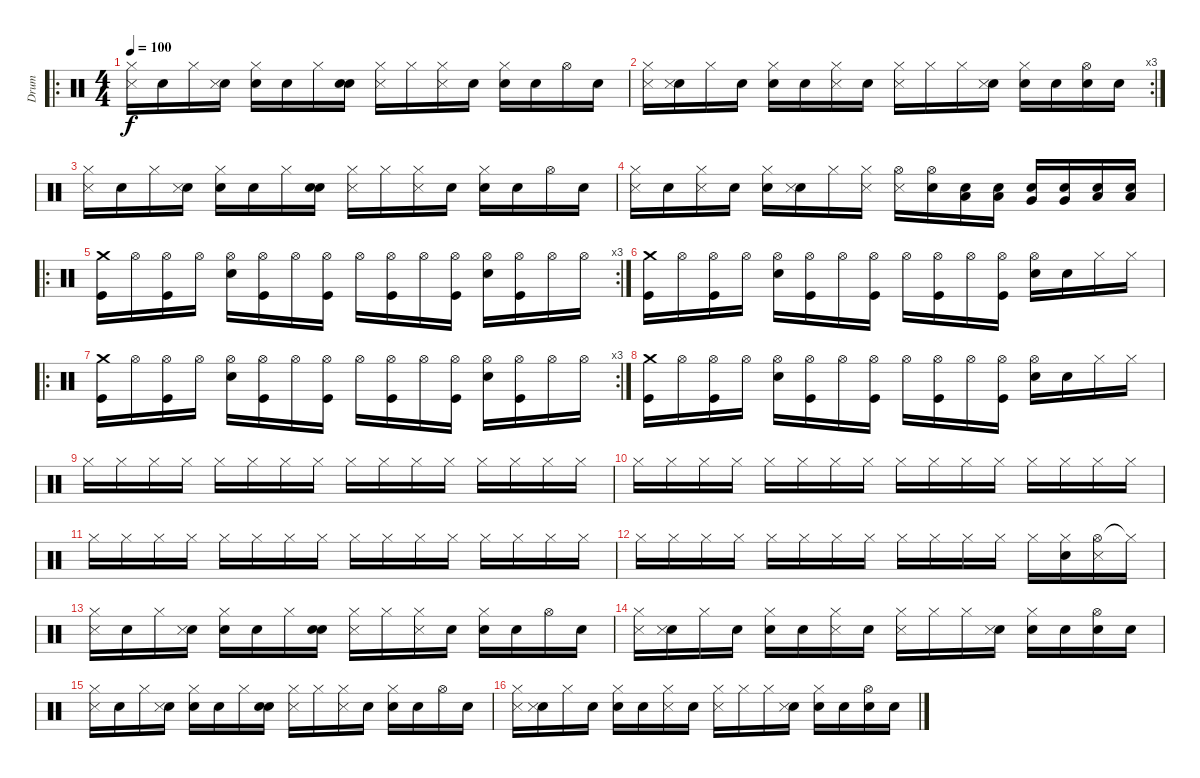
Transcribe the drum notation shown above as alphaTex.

\track ("Drum" "Drum") {instrument percussion}
\staff {score}
\articulation defaults
\ro
\ts (4 4)
\tempo 100
\clef neutral
\ks c
("Hi-Hat (closed)" "Metronome (hit)").16{dy f} "Snare (hit)".16 "Hi-Hat (closed)".16 ("Snare (hit)" "Metronome (hit)").16 ("Hi-Hat (closed)" "Metronome (bell)").16 "Snare (hit)".16 "Hi-Hat (closed)".16 ("Snare (hit)" "Metronome (bell)").16 ("Hi-Hat (closed)" "Metronome (hit)").16 "Hi-Hat (closed)".16 ("Hi-Hat (closed)" "Metronome (hit)").16 "Snare (hit)".16 ("Hi-Hat (closed)" "Metronome (bell)").16 "Snare (hit)".16 "Hi-Hat (open)".16 "Snare (hit)".16 |
\rc 3
("Hi-Hat (closed)" "Metronome (hit)").16 ("Snare (hit)" "Metronome (hit)").16 "Hi-Hat (closed)".16 "Snare (hit)".16 ("Hi-Hat (closed)" "Metronome (bell)").16 "Snare (hit)".16 ("Hi-Hat (closed)" "Metronome (hit)").16 "Snare (hit)".16 ("Hi-Hat (closed)" "Metronome (hit)").16 "Hi-Hat (closed)".16 "Hi-Hat (closed)".16 ("Snare (hit)" "Metronome (hit)").16 ("Hi-Hat (closed)" "Metronome (bell)").16 "Snare (hit)".16 ("Hi-Hat (open)" "Metronome (bell)").16 "Snare (hit)".16 |
("Hi-Hat (closed)" "Metronome (hit)").16 "Snare (hit)".16 "Hi-Hat (closed)".16 ("Snare (hit)" "Metronome (hit)").16 ("Hi-Hat (closed)" "Metronome (bell)").16 "Snare (hit)".16 "Hi-Hat (closed)".16 ("Snare (hit)" "Metronome (bell)").16 ("Hi-Hat (closed)" "Metronome (hit)").16 "Hi-Hat (closed)".16 ("Hi-Hat (closed)" "Metronome (hit)").16 "Snare (hit)".16 ("Hi-Hat (closed)" "Metronome (bell)").16 "Snare (hit)".16 "Hi-Hat (open)".16 "Snare (hit)".16 |
("Hi-Hat (closed)" "Metronome (hit)").16 "Snare (hit)".16 ("Hi-Hat (closed)" "Metronome (hit)").16 "Snare (hit)".16 ("Hi-Hat (closed)" "Metronome (bell)").16 ("Snare (hit)" "Metronome (hit)").16 "Hi-Hat (closed)".16 ("Hi-Hat (closed)" "Metronome (hit)").16 ("Hi-Hat (open)" "Metronome (hit)").16 ("Hi-Hat (open)" "Metronome (bell)").16 ("Snare (hit)" "Low Tom (hit)").16 ("Snare (hit)" "Low Tom (hit)").16 ("Snare (hit)" "Very Low Tom (hit)").16 ("Snare (hit)" "Very Low Tom (hit)").16 ("Snare (hit)" "Low Floor Tom (hit)").16 ("Snare (hit)" "Low Floor Tom (hit)").16 |
\ro
\rc 3
("Crash medium (hit)" "Kick (hit)").16 "Hi-Hat (open)".16 ("Hi-Hat (open)" "Kick (hit)").16 "Hi-Hat (open)".16 ("Hi-Hat (open)" "Electric Snare (hit)").16 ("Hi-Hat (open)" "Kick (hit)").16 "Hi-Hat (open)".16 ("Hi-Hat (open)" "Kick (hit)").16 "Hi-Hat (open)".16 ("Hi-Hat (open)" "Kick (hit)").16 "Hi-Hat (open)".16 ("Hi-Hat (open)" "Kick (hit)").16 ("Hi-Hat (open)" "Electric Snare (hit)").16 ("Hi-Hat (open)" "Kick (hit)").16 "Hi-Hat (open)".16 "Hi-Hat (open)".16 |
("Crash medium (hit)" "Kick (hit)").16 "Hi-Hat (open)".16 ("Hi-Hat (open)" "Kick (hit)").16 "Hi-Hat (open)".16 ("Hi-Hat (open)" "Electric Snare (hit)").16 ("Hi-Hat (open)" "Kick (hit)").16 "Hi-Hat (open)".16 ("Hi-Hat (open)" "Kick (hit)").16 "Hi-Hat (open)".16 ("Hi-Hat (open)" "Kick (hit)").16 "Hi-Hat (open)".16 ("Hi-Hat (open)" "Kick (hit)").16 ("Hi-Hat (open)" "Electric Snare (hit)").16 "Snare (hit)".16 "Hi-Hat (closed)".16 "Hi-Hat (closed)".16 |
\ro
\rc 3
("Crash medium (hit)" "Kick (hit)").16 "Hi-Hat (open)".16 ("Hi-Hat (open)" "Kick (hit)").16 "Hi-Hat (open)".16 ("Hi-Hat (open)" "Electric Snare (hit)").16 ("Hi-Hat (open)" "Kick (hit)").16 "Hi-Hat (open)".16 ("Hi-Hat (open)" "Kick (hit)").16 "Hi-Hat (open)".16 ("Hi-Hat (open)" "Kick (hit)").16 "Hi-Hat (open)".16 ("Hi-Hat (open)" "Kick (hit)").16 ("Hi-Hat (open)" "Electric Snare (hit)").16 ("Hi-Hat (open)" "Kick (hit)").16 "Hi-Hat (open)".16 "Hi-Hat (open)".16 |
("Crash medium (hit)" "Kick (hit)").16 "Hi-Hat (open)".16 ("Hi-Hat (open)" "Kick (hit)").16 "Hi-Hat (open)".16 ("Hi-Hat (open)" "Electric Snare (hit)").16 ("Hi-Hat (open)" "Kick (hit)").16 "Hi-Hat (open)".16 ("Hi-Hat (open)" "Kick (hit)").16 "Hi-Hat (open)".16 ("Hi-Hat (open)" "Kick (hit)").16 "Hi-Hat (open)".16 ("Hi-Hat (open)" "Kick (hit)").16 ("Hi-Hat (open)" "Electric Snare (hit)").16 "Snare (hit)".16 "Hi-Hat (closed)".16 "Hi-Hat (closed)".16 |
"Hi-Hat (closed)".16 "Hi-Hat (closed)".16 "Hi-Hat (closed)".16 "Hi-Hat (closed)".16 "Hi-Hat (closed)".16 "Hi-Hat (closed)".16 "Hi-Hat (closed)".16 "Hi-Hat (closed)".16 "Hi-Hat (closed)".16 "Hi-Hat (closed)".16 "Hi-Hat (closed)".16 "Hi-Hat (closed)".16 "Hi-Hat (closed)".16 "Hi-Hat (closed)".16 "Hi-Hat (closed)".16 "Hi-Hat (closed)".16 |
"Hi-Hat (closed)".16 "Hi-Hat (closed)".16 "Hi-Hat (closed)".16 "Hi-Hat (closed)".16 "Hi-Hat (closed)".16 "Hi-Hat (closed)".16 "Hi-Hat (closed)".16 "Hi-Hat (closed)".16 "Hi-Hat (closed)".16 "Hi-Hat (closed)".16 "Hi-Hat (closed)".16 "Hi-Hat (closed)".16 "Hi-Hat (closed)".16 "Hi-Hat (closed)".16 "Hi-Hat (closed)".16 "Hi-Hat (closed)".16 |
"Hi-Hat (closed)".16 "Hi-Hat (closed)".16 "Hi-Hat (closed)".16 "Hi-Hat (closed)".16 "Hi-Hat (closed)".16 "Hi-Hat (closed)".16 "Hi-Hat (closed)".16 "Hi-Hat (closed)".16 "Hi-Hat (closed)".16 "Hi-Hat (closed)".16 "Hi-Hat (closed)".16 "Hi-Hat (closed)".16 "Hi-Hat (closed)".16 "Hi-Hat (closed)".16 "Hi-Hat (closed)".16 "Hi-Hat (closed)".16 |
"Hi-Hat (closed)".16 "Hi-Hat (closed)".16 "Hi-Hat (closed)".16 "Hi-Hat (closed)".16 "Hi-Hat (closed)".16 "Hi-Hat (closed)".16 "Hi-Hat (closed)".16 "Hi-Hat (closed)".16 "Hi-Hat (closed)".16 "Hi-Hat (closed)".16 "Hi-Hat (closed)".16 "Hi-Hat (closed)".16 "Hi-Hat (closed)".16 ("Hi-Hat (closed)" "Metronome (bell)").16 ("Hi-Hat (open)" "Metronome (hit)").16 "Hi-Hat (closed)"{t}.16 |
("Hi-Hat (closed)" "Metronome (hit)").16 "Snare (hit)".16 "Hi-Hat (closed)".16 ("Snare (hit)" "Metronome (hit)").16 ("Hi-Hat (closed)" "Metronome (bell)").16 "Snare (hit)".16 "Hi-Hat (closed)".16 ("Snare (hit)" "Metronome (bell)").16 ("Hi-Hat (closed)" "Metronome (hit)").16 "Hi-Hat (closed)".16 ("Hi-Hat (closed)" "Metronome (hit)").16 "Snare (hit)".16 ("Hi-Hat (closed)" "Metronome (bell)").16 "Snare (hit)".16 "Hi-Hat (open)".16 "Snare (hit)".16 |
("Hi-Hat (closed)" "Metronome (hit)").16 ("Snare (hit)" "Metronome (hit)").16 "Hi-Hat (closed)".16 "Snare (hit)".16 ("Hi-Hat (closed)" "Metronome (bell)").16 "Snare (hit)".16 ("Hi-Hat (closed)" "Metronome (hit)").16 "Snare (hit)".16 ("Hi-Hat (closed)" "Metronome (hit)").16 "Hi-Hat (closed)".16 "Hi-Hat (closed)".16 ("Snare (hit)" "Metronome (hit)").16 ("Hi-Hat (closed)" "Metronome (bell)").16 "Snare (hit)".16 ("Hi-Hat (open)" "Metronome (bell)").16 "Snare (hit)".16 |
("Hi-Hat (closed)" "Metronome (hit)").16 "Snare (hit)".16 "Hi-Hat (closed)".16 ("Snare (hit)" "Metronome (hit)").16 ("Hi-Hat (closed)" "Metronome (bell)").16 "Snare (hit)".16 "Hi-Hat (closed)".16 ("Snare (hit)" "Metronome (bell)").16 ("Hi-Hat (closed)" "Metronome (hit)").16 "Hi-Hat (closed)".16 ("Hi-Hat (closed)" "Metronome (hit)").16 "Snare (hit)".16 ("Hi-Hat (closed)" "Metronome (bell)").16 "Snare (hit)".16 "Hi-Hat (open)".16 "Snare (hit)".16 |
("Hi-Hat (closed)" "Metronome (hit)").16 ("Snare (hit)" "Metronome (hit)").16 "Hi-Hat (closed)".16 "Snare (hit)".16 ("Hi-Hat (closed)" "Metronome (bell)").16 "Snare (hit)".16 ("Hi-Hat (closed)" "Metronome (hit)").16 "Snare (hit)".16 ("Hi-Hat (closed)" "Metronome (hit)").16 "Hi-Hat (closed)".16 "Hi-Hat (closed)".16 ("Snare (hit)" "Metronome (hit)").16 ("Hi-Hat (closed)" "Metronome (bell)").16 "Snare (hit)".16 ("Hi-Hat (open)" "Metronome (bell)").16 "Snare (hit)".16
